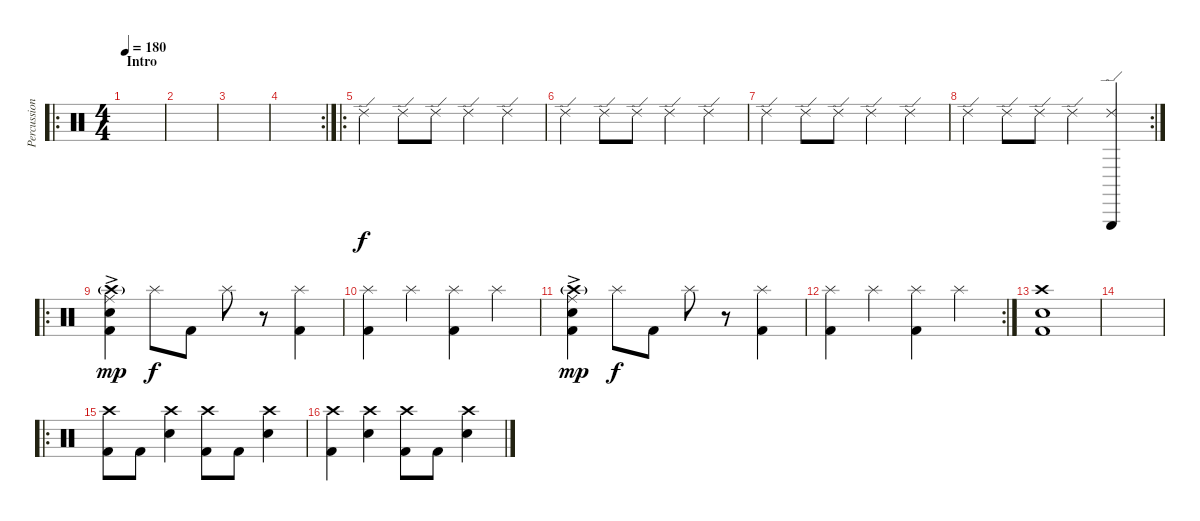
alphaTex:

\track ("Percussions" "Percussion") {instrument percussion}
\staff {score}
\articulation defaults
\ro
\ts (4 4)
\section ("" "Intro")
\tempo 180
\clef neutral
\ks c
|
|
|
\rc 2
|
\ro "Ride (edge) 2".4 "Ride (edge) 2".8 "Ride (edge) 2".8 "Ride (edge) 2".4 "Ride (edge) 2".4
|
"Ride (edge) 2".4 "Ride (edge) 2".8 "Ride (edge) 2".8 "Ride (edge) 2".4 "Ride (edge) 2"{tr (59 16)}.4 |
"Ride (edge) 2".4 "Ride (edge) 2".8 "Ride (edge) 2".8 "Ride (edge) 2".4 "Ride (edge) 2".4 |
\rc 2 "Ride (edge) 2".4 "Ride (edge) 2".8 "Ride (edge) 2".8 "Ride (edge) 2".4
("Ride (edge) 2"{tr (59 16)} "Triangle (hit)").4 |
\ro
("Ride (middle)"{ac} "Crash high (hit)"{g} "Snare (hit) 2" "Kick (hit) 2").4{dy mp} "Splash (hit)".8{dy f} "Kick (hit) 2".8 "Splash (hit)".8 r.8 ("Splash (hit)" "Kick (hit) 2").4 |
("Splash (hit)" "Kick (hit) 2").4 "Splash (hit)".4 ("Splash (hit)" "Kick (hit) 2").4 "Splash (hit)".4 |
("Ride (middle)"{ac} "Crash high (hit)"{g} "Snare (hit) 2" "Kick (hit) 2").4{dy mp} "Splash (hit)".8{dy f} "Kick (hit) 2".8 "Splash (hit)".8 r.8 ("Splash (hit)" "Kick (hit) 2").4 |
\rc 2
("Splash (hit)" "Kick (hit) 2").4 "Splash (hit)".4 ("Splash (hit)" "Kick (hit) 2").4 "Splash (hit)".4 |
("Crash high (hit)" "Snare (hit) 2" "Kick (hit) 2").1 |
|
\ro
("Crash high (hit)" "Kick (hit) 2").8 "Kick (hit) 2".8 ("Crash high (hit)" "Snare (hit) 2").4 ("Crash high (hit)" "Kick (hit) 2").8 "Kick (hit) 2".8 ("Crash high (hit)" "Snare (hit) 2").4 |
("Crash high (hit)" "Kick (hit) 2").4 ("Crash high (hit)" "Snare (hit) 2").4 ("Crash high (hit)" "Kick (hit) 2").8 "Kick (hit) 2".8 ("Crash high (hit)" "Snare (hit) 2").4
